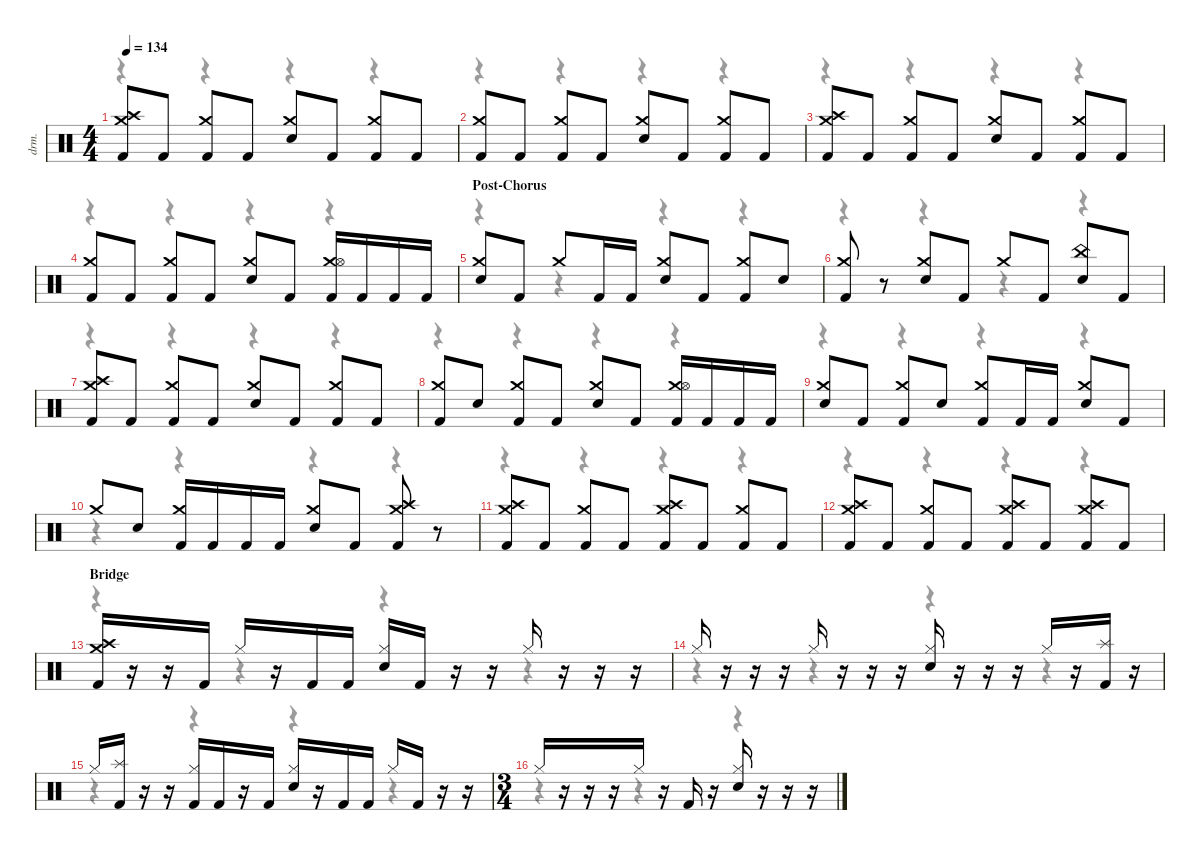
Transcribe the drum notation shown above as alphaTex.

\defaultSystemsLayout 4
\hideDynamics
\bracketExtendMode nobrackets
\track ("Alex Ballew" "drm.") {instrument percussion}
\staff {score}
\articulation defaults
\voice
\ts (4 4)
\tempo 134
\clef neutral
\ks c
("Crash medium (hit)" "Crash high (hit)" "Kick (hit) 2").8{dy f} "Kick (hit) 2".8 ("Crash medium (hit)" "Kick (hit) 2").8 "Kick (hit) 2".8 ("Crash medium (hit)" "Snare (hit) 2").8 "Kick (hit) 2".8 ("Crash medium (hit)" "Kick (hit) 2").8 "Kick (hit) 2".8 |
("Crash medium (hit)" "Kick (hit) 2").8 "Kick (hit) 2".8 ("Crash medium (hit)" "Kick (hit) 2").8 "Kick (hit) 2".8 ("Crash medium (hit)" "Snare (hit) 2").8 "Kick (hit) 2".8 ("Crash medium (hit)" "Kick (hit) 2").8 "Kick (hit) 2".8 |
("Crash medium (hit)" "Crash high (hit)" "Kick (hit) 2").8 "Kick (hit) 2".8 ("Crash medium (hit)" "Kick (hit) 2").8 "Kick (hit) 2".8 ("Crash medium (hit)" "Snare (hit) 2").8 "Kick (hit) 2".8 ("Crash medium (hit)" "Kick (hit) 2").8 "Kick (hit) 2".8 |
("Crash medium (hit)" "Kick (hit) 2").8 "Kick (hit) 2".8 ("Crash medium (hit)" "Kick (hit) 2").8 "Kick (hit) 2".8 ("Crash medium (hit)" "Snare (hit) 2").8 "Kick (hit) 2".8 ("Crash medium (hit)" "Hi-Hat (open)" "Kick (hit) 2").16 "Kick (hit) 2".16 "Kick (hit) 2".16 "Kick (hit) 2".16 |
\section ("" "Post-Chorus")
("Crash medium (hit)" "Snare (hit) 2").8 "Kick (hit) 2".8 "Crash medium (hit)".8 "Kick (hit) 2".16 "Kick (hit) 2".16 ("Crash medium (hit)" "Snare (hit) 2").8 "Kick (hit) 2".8 ("Crash medium (hit)" "Kick (hit) 2").8 "Snare (hit) 2".8 |
("Crash medium (hit)" "Kick (hit) 2").8 r.8 ("Crash medium (hit)" "Snare (hit) 2").8 "Kick (hit) 2".8 "Crash medium (hit)".8 "Kick (hit) 2".8 ("China (hit)" "Snare (hit) 2").8 "Kick (hit) 2".8 |
("Crash medium (hit)" "Crash high (hit)" "Kick (hit) 2").8 "Kick (hit) 2".8 ("Crash medium (hit)" "Kick (hit) 2").8 "Kick (hit) 2".8 ("Crash medium (hit)" "Snare (hit) 2").8 "Kick (hit) 2".8 ("Crash medium (hit)" "Kick (hit) 2").8 "Kick (hit) 2".8 |
("Crash medium (hit)" "Kick (hit) 2").8 "Snare (hit) 2".8 ("Crash medium (hit)" "Kick (hit) 2").8 "Kick (hit) 2".8 ("Crash medium (hit)" "Snare (hit) 2").8 "Kick (hit) 2".8 ("Crash medium (hit)" "Hi-Hat (open)" "Kick (hit) 2").16 "Kick (hit) 2".16 "Kick (hit) 2".16 "Kick (hit) 2".16 |
("Crash medium (hit)" "Snare (hit) 2").8 "Kick (hit) 2".8 ("Crash medium (hit)" "Kick (hit) 2").8 "Snare (hit) 2".8 ("Crash medium (hit)" "Kick (hit) 2").8 "Kick (hit) 2".16 "Kick (hit) 2".16 ("Crash medium (hit)" "Snare (hit) 2").8 "Kick (hit) 2".8 |
"Crash medium (hit)".8 "Snare (hit) 2".8 ("Crash medium (hit)" "Kick (hit) 2").16 "Kick (hit) 2".16 "Kick (hit) 2".16 "Kick (hit) 2".16 ("Crash medium (hit)" "Snare (hit) 2").8 "Kick (hit) 2".8 ("Crash medium (hit)" "Crash high (hit)" "Kick (hit) 2").8 r.8 |
("Crash medium (hit)" "Crash high (hit)" "Kick (hit) 2").8 "Kick (hit) 2".8 ("Crash medium (hit)" "Kick (hit) 2").8 "Kick (hit) 2".8 ("Crash medium (hit)" "Crash high (hit)" "Kick (hit) 2").8 "Kick (hit) 2".8 ("Crash medium (hit)" "Kick (hit) 2").8 "Kick (hit) 2".8 |
("Crash medium (hit)" "Crash high (hit)" "Kick (hit) 2").8 "Kick (hit) 2".8 ("Crash medium (hit)" "Kick (hit) 2").8 "Kick (hit) 2".8 ("Crash medium (hit)" "Crash high (hit)" "Kick (hit) 2").8 "Kick (hit) 2".8 ("Crash medium (hit)" "Crash high (hit)" "Kick (hit) 2").8 "Kick (hit) 2".8 |
\section ("" "Bridge")
("Crash medium (hit)" "Crash high (hit)" "Kick (hit) 2").16 r.16 r.16 "Kick (hit) 2".16 "Hi-Hat (closed)".16 r.16 "Kick (hit) 2".16 "Kick (hit) 2".16 ("Hi-Hat (closed)" "Snare (hit) 2").16 "Kick (hit) 2".16 r.16 r.16 "Hi-Hat (closed)".16 r.16 r.16 r.16 |
"Hi-Hat (closed)".16 r.16 r.16 r.16 "Hi-Hat (closed)".16 r.16 r.16 r.16 ("Hi-Hat (closed)" "Snare (hit) 2").16 r.16 r.16 r.16 "Hi-Hat (closed)".16 r.16 ("Splash (hit)" "Kick (hit) 2").16 r.16 |
"Hi-Hat (closed)".16 ("Splash (hit)" "Kick (hit) 2").16 r.16 r.16 ("Hi-Hat (closed)" "Kick (hit) 2").16 "Kick (hit) 2".16 r.16 "Kick (hit) 2".16 ("Hi-Hat (closed)" "Snare (hit) 2").16 r.16 "Kick (hit) 2".16 "Kick (hit) 2".16 "Hi-Hat (closed)".16 "Kick (hit) 2".16 r.16 r.16 |
\ts (3 4)
\beaming (8 3 1 1 1)
"Hi-Hat (closed)".16 r.16 r.16 r.16 "Hi-Hat (closed)".16 r.16 "Kick (hit) 2".16 r.16 ("Hi-Hat (closed)" "Snare (hit) 2").16 r.16 r.16 r.16
\voice
\clef neutral
\ottava regular
\simile none
\ks c
r.4{dy mf} r.4 r.4 r.4 |
r.4 r.4 r.4 r.4 |
r.4 r.4 r.4 r.4 |
r.4 r.4 r.4 r.4 |
r.4 r.4 r.4 r.4 |
r.4 r.4 r.4 r.4 |
r.4 r.4 r.4 r.4 |
r.4 r.4 r.4 r.4 |
r.4 r.4 r.4 r.4 |
r.4 r.4 r.4 r.4 |
r.4 r.4 r.4 r.4 |
r.4 r.4 r.4 r.4 |
r.4 r.4 r.4 r.4 |
r.4 r.4 r.4 r.4 |
r.4 r.4 r.4 r.4 |
r.4 r.4 r.4
